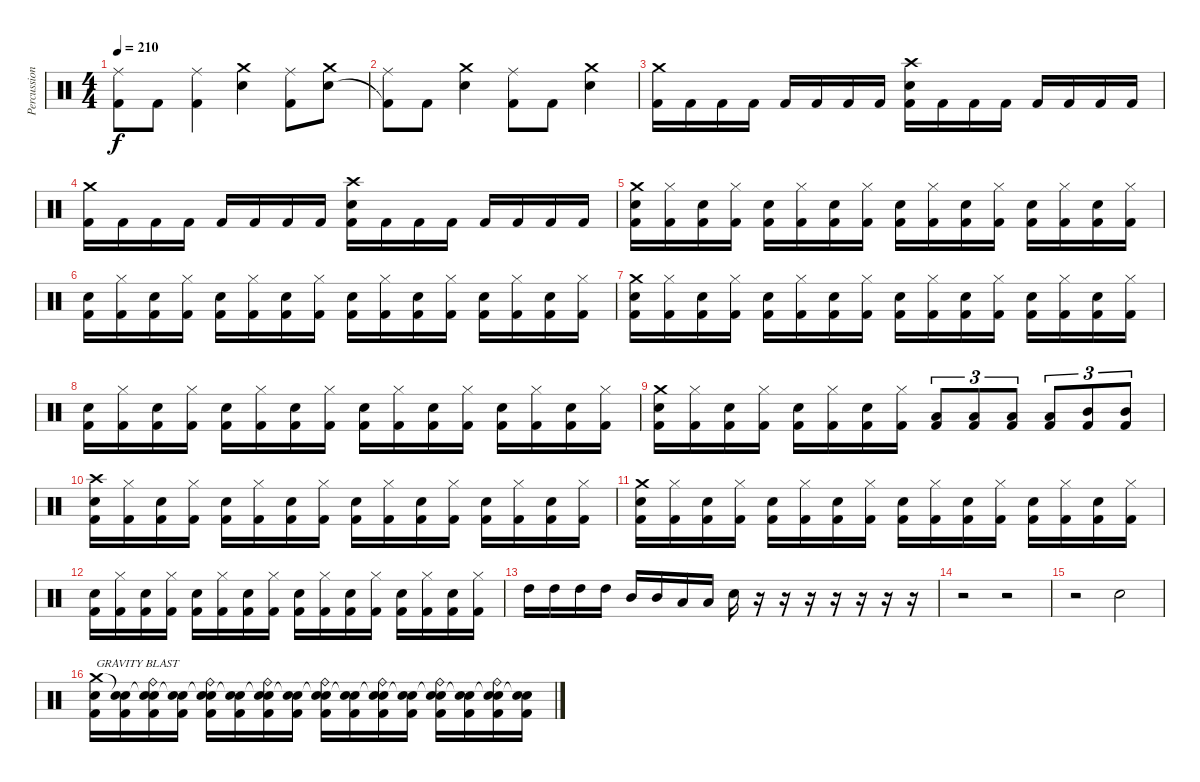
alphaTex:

\track ("Percussion" "Percussion") {instrument percussion}
\staff {score}
\articulation defaults
\ts (4 4)
\tempo 210
\clef neutral
\ks c
("Ride (middle)" "Kick (hit) 2").8{dy f} "Kick (hit) 2".8 ("Ride (middle)" "Kick (hit) 2").4 ("Crash medium (hit)" "Snare (hit) 2").4 ("Ride (middle)" "Kick (hit) 2").8 ("Crash medium (hit)" "Snare (hit) 2").8 |
("Ride (middle)" "Kick (hit) 2"{t}).8 "Kick (hit) 2".8 ("Crash medium (hit)" "Snare (hit) 2").4 ("Ride (middle)" "Kick (hit) 2").8 "Kick (hit) 2".8 ("Crash medium (hit)" "Snare (hit) 2").4 |
("Crash medium (hit)" "Kick (hit) 2").16 "Kick (hit) 2".16 "Kick (hit) 2".16 "Kick (hit) 2".16 "Kick (hit) 2".16 "Kick (hit) 2".16 "Kick (hit) 2".16 "Kick (hit) 2".16 ("Crash high (hit)" "Snare (hit) 2" "Kick (hit) 2").16 "Kick (hit) 2".16 "Kick (hit) 2".16 "Kick (hit) 2".16 "Kick (hit) 2".16 "Kick (hit) 2".16 "Kick (hit) 2".16 "Kick (hit) 2".16 |
("Crash medium (hit)" "Kick (hit) 2").16 "Kick (hit) 2".16 "Kick (hit) 2".16 "Kick (hit) 2".16 "Kick (hit) 2".16 "Kick (hit) 2".16 "Kick (hit) 2".16 "Kick (hit) 2".16 ("Crash high (hit)" "Snare (hit) 2" "Kick (hit) 2").16 "Kick (hit) 2".16 "Kick (hit) 2".16 "Kick (hit) 2".16 "Kick (hit) 2".16 "Kick (hit) 2".16 "Kick (hit) 2".16 "Kick (hit) 2".16 |
("Crash medium (hit)" "Snare (hit) 2" "Kick (hit) 2").16 ("Hi-Hat (closed)" "Kick (hit) 2").16 ("Snare (hit) 2" "Kick (hit) 2").16 ("Hi-Hat (closed)" "Kick (hit) 2").16 ("Snare (hit) 2" "Kick (hit) 2").16 ("Hi-Hat (closed)" "Kick (hit) 2").16 ("Snare (hit) 2" "Kick (hit) 2").16 ("Hi-Hat (closed)" "Kick (hit) 2").16 ("Snare (hit) 2" "Kick (hit) 2").16 ("Hi-Hat (closed)" "Kick (hit) 2").16 ("Snare (hit) 2" "Kick (hit) 2").16 ("Hi-Hat (closed)" "Kick (hit) 2").16 ("Snare (hit) 2" "Kick (hit) 2").16 ("Hi-Hat (closed)" "Kick (hit) 2").16 ("Snare (hit) 2" "Kick (hit) 2").16 ("Hi-Hat (closed)" "Kick (hit) 2").16 |
("Snare (hit) 2" "Kick (hit) 2").16 ("Hi-Hat (closed)" "Kick (hit) 2").16 ("Snare (hit) 2" "Kick (hit) 2").16 ("Hi-Hat (closed)" "Kick (hit) 2").16 ("Snare (hit) 2" "Kick (hit) 2").16 ("Hi-Hat (closed)" "Kick (hit) 2").16 ("Snare (hit) 2" "Kick (hit) 2").16 ("Hi-Hat (closed)" "Kick (hit) 2").16 ("Snare (hit) 2" "Kick (hit) 2").16 ("Hi-Hat (closed)" "Kick (hit) 2").16 ("Snare (hit) 2" "Kick (hit) 2").16 ("Hi-Hat (closed)" "Kick (hit) 2").16 ("Snare (hit) 2" "Kick (hit) 2").16 ("Hi-Hat (closed)" "Kick (hit) 2").16 ("Snare (hit) 2" "Kick (hit) 2").16 ("Hi-Hat (closed)" "Kick (hit) 2").16 |
("Crash medium (hit)" "Snare (hit) 2" "Kick (hit) 2").16 ("Hi-Hat (closed)" "Kick (hit) 2").16 ("Snare (hit) 2" "Kick (hit) 2").16 ("Hi-Hat (closed)" "Kick (hit) 2").16 ("Snare (hit) 2" "Kick (hit) 2").16 ("Hi-Hat (closed)" "Kick (hit) 2").16 ("Snare (hit) 2" "Kick (hit) 2").16 ("Hi-Hat (closed)" "Kick (hit) 2").16 ("Snare (hit) 2" "Kick (hit) 2").16 ("Hi-Hat (closed)" "Kick (hit) 2").16 ("Snare (hit) 2" "Kick (hit) 2").16 ("Hi-Hat (closed)" "Kick (hit) 2").16 ("Snare (hit) 2" "Kick (hit) 2").16 ("Hi-Hat (closed)" "Kick (hit) 2").16 ("Snare (hit) 2" "Kick (hit) 2").16 ("Hi-Hat (closed)" "Kick (hit) 2").16 |
("Snare (hit) 2" "Kick (hit) 2").16 ("Hi-Hat (closed)" "Kick (hit) 2").16 ("Snare (hit) 2" "Kick (hit) 2").16 ("Hi-Hat (closed)" "Kick (hit) 2").16 ("Snare (hit) 2" "Kick (hit) 2").16 ("Hi-Hat (closed)" "Kick (hit) 2").16 ("Snare (hit) 2" "Kick (hit) 2").16 ("Hi-Hat (closed)" "Kick (hit) 2").16 ("Snare (hit) 2" "Kick (hit) 2").16 ("Hi-Hat (closed)" "Kick (hit) 2").16 ("Snare (hit) 2" "Kick (hit) 2").16 ("Hi-Hat (closed)" "Kick (hit) 2").16 ("Snare (hit) 2" "Kick (hit) 2").16 ("Hi-Hat (closed)" "Kick (hit) 2").16 ("Snare (hit) 2" "Kick (hit) 2").16 ("Hi-Hat (closed)" "Kick (hit) 2").16 |
("Crash medium (hit)" "Snare (hit) 2" "Kick (hit) 2").16 ("Hi-Hat (closed)" "Kick (hit) 2").16 ("Snare (hit) 2" "Kick (hit) 2").16 ("Hi-Hat (closed)" "Kick (hit) 2").16 ("Snare (hit) 2" "Kick (hit) 2").16 ("Hi-Hat (closed)" "Kick (hit) 2").16 ("Snare (hit) 2" "Kick (hit) 2").16 ("Hi-Hat (closed)" "Kick (hit) 2").16 ("Low Tom (hit)" "Kick (hit) 2").8{tu (3 2)} ("Low Tom (hit)" "Kick (hit) 2").8{tu (3 2)} ("Low Tom (hit)" "Kick (hit) 2").8{tu (3 2)} ("Low Tom (hit)" "Kick (hit) 2").8{tu (3 2)} ("Mid Tom (hit)" "Kick (hit) 2").8{tu (3 2)} ("Mid Tom (hit)" "Kick (hit) 2").8{tu (3 2)} |
("Crash high (hit)" "Snare (hit) 2" "Kick (hit) 2").16 ("Hi-Hat (closed)" "Kick (hit) 2").16 ("Snare (hit) 2" "Kick (hit) 2").16 ("Hi-Hat (closed)" "Kick (hit) 2").16 ("Snare (hit) 2" "Kick (hit) 2").16 ("Hi-Hat (closed)" "Kick (hit) 2").16 ("Snare (hit) 2" "Kick (hit) 2").16 ("Hi-Hat (closed)" "Kick (hit) 2").16 ("Snare (hit) 2" "Kick (hit) 2").16 ("Hi-Hat (closed)" "Kick (hit) 2").16 ("Snare (hit) 2" "Kick (hit) 2").16 ("Hi-Hat (closed)" "Kick (hit) 2").16 ("Snare (hit) 2" "Kick (hit) 2").16 ("Hi-Hat (closed)" "Kick (hit) 2").16 ("Snare (hit) 2" "Kick (hit) 2").16 ("Hi-Hat (closed)" "Kick (hit) 2").16 |
("Crash medium (hit)" "Snare (hit) 2" "Kick (hit) 2").16 ("Hi-Hat (closed)" "Kick (hit) 2").16 ("Snare (hit) 2" "Kick (hit) 2").16 ("Hi-Hat (closed)" "Kick (hit) 2").16 ("Snare (hit) 2" "Kick (hit) 2").16 ("Hi-Hat (closed)" "Kick (hit) 2").16 ("Snare (hit) 2" "Kick (hit) 2").16 ("Hi-Hat (closed)" "Kick (hit) 2").16 ("Snare (hit) 2" "Kick (hit) 2").16 ("Hi-Hat (closed)" "Kick (hit) 2").16 ("Snare (hit) 2" "Kick (hit) 2").16 ("Hi-Hat (closed)" "Kick (hit) 2").16 ("Snare (hit) 2" "Kick (hit) 2").16 ("Hi-Hat (closed)" "Kick (hit) 2").16 ("Snare (hit) 2" "Kick (hit) 2").16 ("Hi-Hat (closed)" "Kick (hit) 2").16 |
("Snare (hit) 2" "Kick (hit) 2").16 ("Hi-Hat (closed)" "Kick (hit) 2").16 ("Snare (hit) 2" "Kick (hit) 2").16 ("Hi-Hat (closed)" "Kick (hit) 2").16 ("Snare (hit) 2" "Kick (hit) 2").16 ("Hi-Hat (closed)" "Kick (hit) 2").16 ("Snare (hit) 2" "Kick (hit) 2").16 ("Hi-Hat (closed)" "Kick (hit) 2").16 ("Snare (hit) 2" "Kick (hit) 2").16 ("Hi-Hat (closed)" "Kick (hit) 2").16 ("Snare (hit) 2" "Kick (hit) 2").16 ("Hi-Hat (closed)" "Kick (hit) 2").16 ("Snare (hit) 2" "Kick (hit) 2").16 ("Hi-Hat (closed)" "Kick (hit) 2").16 ("Snare (hit) 2" "Kick (hit) 2").16 ("Hi-Hat (closed)" "Kick (hit) 2").16 |
"High Tom (hit)".16 "High Tom (hit)".16 "High Tom (hit)".16 "High Tom (hit)".16 "Mid Tom (hit)".16 "Mid Tom (hit)".16 "Low Tom (hit)".16 "Low Tom (hit)".16 "Snare (hit) 2".16 r.16 r.16 r.16 r.16 r.16 r.16 r.16 |
r.2 r.2 |
r.2 "Snare (hit) 2".2 |
("Crash medium (hit)" "Snare (hit) 2" "Kick (hit) 2").16{txt "GRAVITY BLAST"} ("Snare (hit)"{t} "Snare (hit) 2" "Kick (hit) 2").16 ("Snare (hit)"{t} "Ride (bell)" "Snare (hit) 2" "Kick (hit) 2").16 ("Snare (hit)"{t} "Snare (hit) 2" "Kick (hit) 2").16 ("Snare (hit)"{t} "Ride (bell)" "Snare (hit) 2" "Kick (hit) 2").16 ("Snare (hit)"{t} "Snare (hit) 2" "Kick (hit) 2").16 ("Snare (hit)"{t} "Ride (bell)" "Snare (hit) 2" "Kick (hit) 2").16 ("Snare (hit)"{t} "Snare (hit) 2" "Kick (hit) 2").16 ("Snare (hit)"{t} "Ride (bell)" "Snare (hit) 2" "Kick (hit) 2").16 ("Snare (hit)"{t} "Snare (hit) 2" "Kick (hit) 2").16 ("Snare (hit)"{t} "Ride (bell)" "Snare (hit) 2" "Kick (hit) 2").16 ("Snare (hit)"{t} "Snare (hit) 2" "Kick (hit) 2").16 ("Snare (hit)"{t} "Ride (bell)" "Snare (hit) 2" "Kick (hit) 2").16 ("Snare (hit)"{t} "Snare (hit) 2" "Kick (hit) 2").16 ("Snare (hit)"{t} "Ride (bell)" "Snare (hit) 2" "Kick (hit) 2").16 ("Snare (hit)"{t} "Snare (hit) 2" "Kick (hit) 2").16
